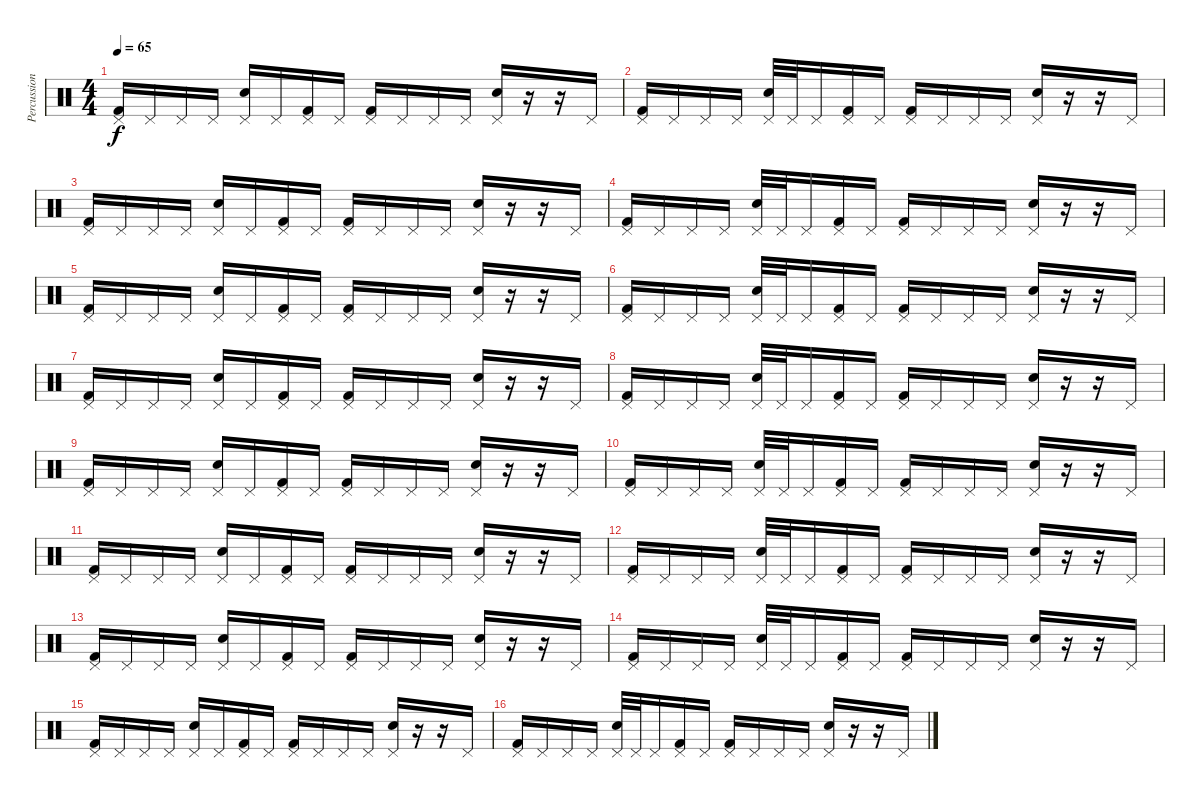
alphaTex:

\track ("Percussion" "Percussion") {instrument percussion}
\staff {score}
\articulation defaults
\ts (4 4)
\tempo 65
\clef neutral
\ks c
("Pedal Hi-Hat (hit)" "Kick (hit) 2").16{dy f} "Pedal Hi-Hat (hit)".16 "Pedal Hi-Hat (hit)".16 "Pedal Hi-Hat (hit)".16 ("Pedal Hi-Hat (hit)" "Snare (hit) 2").16 "Pedal Hi-Hat (hit)".16 ("Pedal Hi-Hat (hit)" "Kick (hit) 2").16 "Pedal Hi-Hat (hit)".16 ("Pedal Hi-Hat (hit)" "Kick (hit) 2").16 "Pedal Hi-Hat (hit)".16 "Pedal Hi-Hat (hit)".16 "Pedal Hi-Hat (hit)".16 ("Pedal Hi-Hat (hit)" "Snare (hit) 2").16 r.16 r.16 "Pedal Hi-Hat (hit)".16 |
("Pedal Hi-Hat (hit)" "Kick (hit) 2").16 "Pedal Hi-Hat (hit)".16 "Pedal Hi-Hat (hit)".16 "Pedal Hi-Hat (hit)".16 ("Pedal Hi-Hat (hit)" "Snare (hit) 2").32 "Pedal Hi-Hat (hit)".32 "Pedal Hi-Hat (hit)".16 ("Pedal Hi-Hat (hit)" "Kick (hit) 2").16 "Pedal Hi-Hat (hit)".16 ("Pedal Hi-Hat (hit)" "Kick (hit) 2").16 "Pedal Hi-Hat (hit)".16 "Pedal Hi-Hat (hit)".16 "Pedal Hi-Hat (hit)".16 ("Pedal Hi-Hat (hit)" "Snare (hit) 2").16 r.16 r.16 "Pedal Hi-Hat (hit)".16 |
("Pedal Hi-Hat (hit)" "Kick (hit) 2").16 "Pedal Hi-Hat (hit)".16 "Pedal Hi-Hat (hit)".16 "Pedal Hi-Hat (hit)".16 ("Pedal Hi-Hat (hit)" "Snare (hit) 2").16 "Pedal Hi-Hat (hit)".16 ("Pedal Hi-Hat (hit)" "Kick (hit) 2").16 "Pedal Hi-Hat (hit)".16 ("Pedal Hi-Hat (hit)" "Kick (hit) 2").16 "Pedal Hi-Hat (hit)".16 "Pedal Hi-Hat (hit)".16 "Pedal Hi-Hat (hit)".16 ("Pedal Hi-Hat (hit)" "Snare (hit) 2").16 r.16 r.16 "Pedal Hi-Hat (hit)".16 |
("Pedal Hi-Hat (hit)" "Kick (hit) 2").16 "Pedal Hi-Hat (hit)".16 "Pedal Hi-Hat (hit)".16 "Pedal Hi-Hat (hit)".16 ("Pedal Hi-Hat (hit)" "Snare (hit) 2").32 "Pedal Hi-Hat (hit)".32 "Pedal Hi-Hat (hit)".16 ("Pedal Hi-Hat (hit)" "Kick (hit) 2").16 "Pedal Hi-Hat (hit)".16 ("Pedal Hi-Hat (hit)" "Kick (hit) 2").16 "Pedal Hi-Hat (hit)".16 "Pedal Hi-Hat (hit)".16 "Pedal Hi-Hat (hit)".16 ("Pedal Hi-Hat (hit)" "Snare (hit) 2").16 r.16 r.16 "Pedal Hi-Hat (hit)".16 |
("Pedal Hi-Hat (hit)" "Kick (hit) 2").16 "Pedal Hi-Hat (hit)".16 "Pedal Hi-Hat (hit)".16 "Pedal Hi-Hat (hit)".16 ("Pedal Hi-Hat (hit)" "Snare (hit) 2").16 "Pedal Hi-Hat (hit)".16 ("Pedal Hi-Hat (hit)" "Kick (hit) 2").16 "Pedal Hi-Hat (hit)".16 ("Pedal Hi-Hat (hit)" "Kick (hit) 2").16 "Pedal Hi-Hat (hit)".16 "Pedal Hi-Hat (hit)".16 "Pedal Hi-Hat (hit)".16 ("Pedal Hi-Hat (hit)" "Snare (hit) 2").16 r.16 r.16 "Pedal Hi-Hat (hit)".16 |
("Pedal Hi-Hat (hit)" "Kick (hit) 2").16 "Pedal Hi-Hat (hit)".16 "Pedal Hi-Hat (hit)".16 "Pedal Hi-Hat (hit)".16 ("Pedal Hi-Hat (hit)" "Snare (hit) 2").32 "Pedal Hi-Hat (hit)".32 "Pedal Hi-Hat (hit)".16 ("Pedal Hi-Hat (hit)" "Kick (hit) 2").16 "Pedal Hi-Hat (hit)".16 ("Pedal Hi-Hat (hit)" "Kick (hit) 2").16 "Pedal Hi-Hat (hit)".16 "Pedal Hi-Hat (hit)".16 "Pedal Hi-Hat (hit)".16 ("Pedal Hi-Hat (hit)" "Snare (hit) 2").16 r.16 r.16 "Pedal Hi-Hat (hit)".16 |
("Pedal Hi-Hat (hit)" "Kick (hit) 2").16 "Pedal Hi-Hat (hit)".16 "Pedal Hi-Hat (hit)".16 "Pedal Hi-Hat (hit)".16 ("Pedal Hi-Hat (hit)" "Snare (hit) 2").16 "Pedal Hi-Hat (hit)".16 ("Pedal Hi-Hat (hit)" "Kick (hit) 2").16 "Pedal Hi-Hat (hit)".16 ("Pedal Hi-Hat (hit)" "Kick (hit) 2").16 "Pedal Hi-Hat (hit)".16 "Pedal Hi-Hat (hit)".16 "Pedal Hi-Hat (hit)".16 ("Pedal Hi-Hat (hit)" "Snare (hit) 2").16 r.16 r.16 "Pedal Hi-Hat (hit)".16 |
("Pedal Hi-Hat (hit)" "Kick (hit) 2").16 "Pedal Hi-Hat (hit)".16 "Pedal Hi-Hat (hit)".16 "Pedal Hi-Hat (hit)".16 ("Pedal Hi-Hat (hit)" "Snare (hit) 2").32 "Pedal Hi-Hat (hit)".32 "Pedal Hi-Hat (hit)".16 ("Pedal Hi-Hat (hit)" "Kick (hit) 2").16 "Pedal Hi-Hat (hit)".16 ("Pedal Hi-Hat (hit)" "Kick (hit) 2").16 "Pedal Hi-Hat (hit)".16 "Pedal Hi-Hat (hit)".16 "Pedal Hi-Hat (hit)".16 ("Pedal Hi-Hat (hit)" "Snare (hit) 2").16 r.16 r.16 "Pedal Hi-Hat (hit)".16 |
("Pedal Hi-Hat (hit)" "Kick (hit) 2").16 "Pedal Hi-Hat (hit)".16 "Pedal Hi-Hat (hit)".16 "Pedal Hi-Hat (hit)".16 ("Pedal Hi-Hat (hit)" "Snare (hit) 2").16 "Pedal Hi-Hat (hit)".16 ("Pedal Hi-Hat (hit)" "Kick (hit) 2").16 "Pedal Hi-Hat (hit)".16 ("Pedal Hi-Hat (hit)" "Kick (hit) 2").16 "Pedal Hi-Hat (hit)".16 "Pedal Hi-Hat (hit)".16 "Pedal Hi-Hat (hit)".16 ("Pedal Hi-Hat (hit)" "Snare (hit) 2").16 r.16 r.16 "Pedal Hi-Hat (hit)".16 |
("Pedal Hi-Hat (hit)" "Kick (hit) 2").16 "Pedal Hi-Hat (hit)".16 "Pedal Hi-Hat (hit)".16 "Pedal Hi-Hat (hit)".16 ("Pedal Hi-Hat (hit)" "Snare (hit) 2").32 "Pedal Hi-Hat (hit)".32 "Pedal Hi-Hat (hit)".16 ("Pedal Hi-Hat (hit)" "Kick (hit) 2").16 "Pedal Hi-Hat (hit)".16 ("Pedal Hi-Hat (hit)" "Kick (hit) 2").16 "Pedal Hi-Hat (hit)".16 "Pedal Hi-Hat (hit)".16 "Pedal Hi-Hat (hit)".16 ("Pedal Hi-Hat (hit)" "Snare (hit) 2").16 r.16 r.16 "Pedal Hi-Hat (hit)".16 |
("Pedal Hi-Hat (hit)" "Kick (hit) 2").16 "Pedal Hi-Hat (hit)".16 "Pedal Hi-Hat (hit)".16 "Pedal Hi-Hat (hit)".16 ("Pedal Hi-Hat (hit)" "Snare (hit) 2").16 "Pedal Hi-Hat (hit)".16 ("Pedal Hi-Hat (hit)" "Kick (hit) 2").16 "Pedal Hi-Hat (hit)".16 ("Pedal Hi-Hat (hit)" "Kick (hit) 2").16 "Pedal Hi-Hat (hit)".16 "Pedal Hi-Hat (hit)".16 "Pedal Hi-Hat (hit)".16 ("Pedal Hi-Hat (hit)" "Snare (hit) 2").16 r.16 r.16 "Pedal Hi-Hat (hit)".16 |
("Pedal Hi-Hat (hit)" "Kick (hit) 2").16 "Pedal Hi-Hat (hit)".16 "Pedal Hi-Hat (hit)".16 "Pedal Hi-Hat (hit)".16 ("Pedal Hi-Hat (hit)" "Snare (hit) 2").32 "Pedal Hi-Hat (hit)".32 "Pedal Hi-Hat (hit)".16 ("Pedal Hi-Hat (hit)" "Kick (hit) 2").16 "Pedal Hi-Hat (hit)".16 ("Pedal Hi-Hat (hit)" "Kick (hit) 2").16 "Pedal Hi-Hat (hit)".16 "Pedal Hi-Hat (hit)".16 "Pedal Hi-Hat (hit)".16 ("Pedal Hi-Hat (hit)" "Snare (hit) 2").16 r.16 r.16 "Pedal Hi-Hat (hit)".16 |
("Pedal Hi-Hat (hit)" "Kick (hit) 2").16 "Pedal Hi-Hat (hit)".16 "Pedal Hi-Hat (hit)".16 "Pedal Hi-Hat (hit)".16 ("Pedal Hi-Hat (hit)" "Snare (hit) 2").16 "Pedal Hi-Hat (hit)".16 ("Pedal Hi-Hat (hit)" "Kick (hit) 2").16 "Pedal Hi-Hat (hit)".16 ("Pedal Hi-Hat (hit)" "Kick (hit) 2").16 "Pedal Hi-Hat (hit)".16 "Pedal Hi-Hat (hit)".16 "Pedal Hi-Hat (hit)".16 ("Pedal Hi-Hat (hit)" "Snare (hit) 2").16 r.16 r.16 "Pedal Hi-Hat (hit)".16 |
("Pedal Hi-Hat (hit)" "Kick (hit) 2").16 "Pedal Hi-Hat (hit)".16 "Pedal Hi-Hat (hit)".16 "Pedal Hi-Hat (hit)".16 ("Pedal Hi-Hat (hit)" "Snare (hit) 2").32 "Pedal Hi-Hat (hit)".32 "Pedal Hi-Hat (hit)".16 ("Pedal Hi-Hat (hit)" "Kick (hit) 2").16 "Pedal Hi-Hat (hit)".16 ("Pedal Hi-Hat (hit)" "Kick (hit) 2").16 "Pedal Hi-Hat (hit)".16 "Pedal Hi-Hat (hit)".16 "Pedal Hi-Hat (hit)".16 ("Pedal Hi-Hat (hit)" "Snare (hit) 2").16 r.16 r.16 "Pedal Hi-Hat (hit)".16 |
("Pedal Hi-Hat (hit)" "Kick (hit) 2").16 "Pedal Hi-Hat (hit)".16 "Pedal Hi-Hat (hit)".16 "Pedal Hi-Hat (hit)".16 ("Pedal Hi-Hat (hit)" "Snare (hit) 2").16 "Pedal Hi-Hat (hit)".16 ("Pedal Hi-Hat (hit)" "Kick (hit) 2").16 "Pedal Hi-Hat (hit)".16 ("Pedal Hi-Hat (hit)" "Kick (hit) 2").16 "Pedal Hi-Hat (hit)".16 "Pedal Hi-Hat (hit)".16 "Pedal Hi-Hat (hit)".16 ("Pedal Hi-Hat (hit)" "Snare (hit) 2").16 r.16 r.16 "Pedal Hi-Hat (hit)".16 |
("Pedal Hi-Hat (hit)" "Kick (hit) 2").16 "Pedal Hi-Hat (hit)".16 "Pedal Hi-Hat (hit)".16 "Pedal Hi-Hat (hit)".16 ("Pedal Hi-Hat (hit)" "Snare (hit) 2").32 "Pedal Hi-Hat (hit)".32 "Pedal Hi-Hat (hit)".16 ("Pedal Hi-Hat (hit)" "Kick (hit) 2").16 "Pedal Hi-Hat (hit)".16 ("Pedal Hi-Hat (hit)" "Kick (hit) 2").16 "Pedal Hi-Hat (hit)".16 "Pedal Hi-Hat (hit)".16 "Pedal Hi-Hat (hit)".16 ("Pedal Hi-Hat (hit)" "Snare (hit) 2").16 r.16 r.16 "Pedal Hi-Hat (hit)".16
